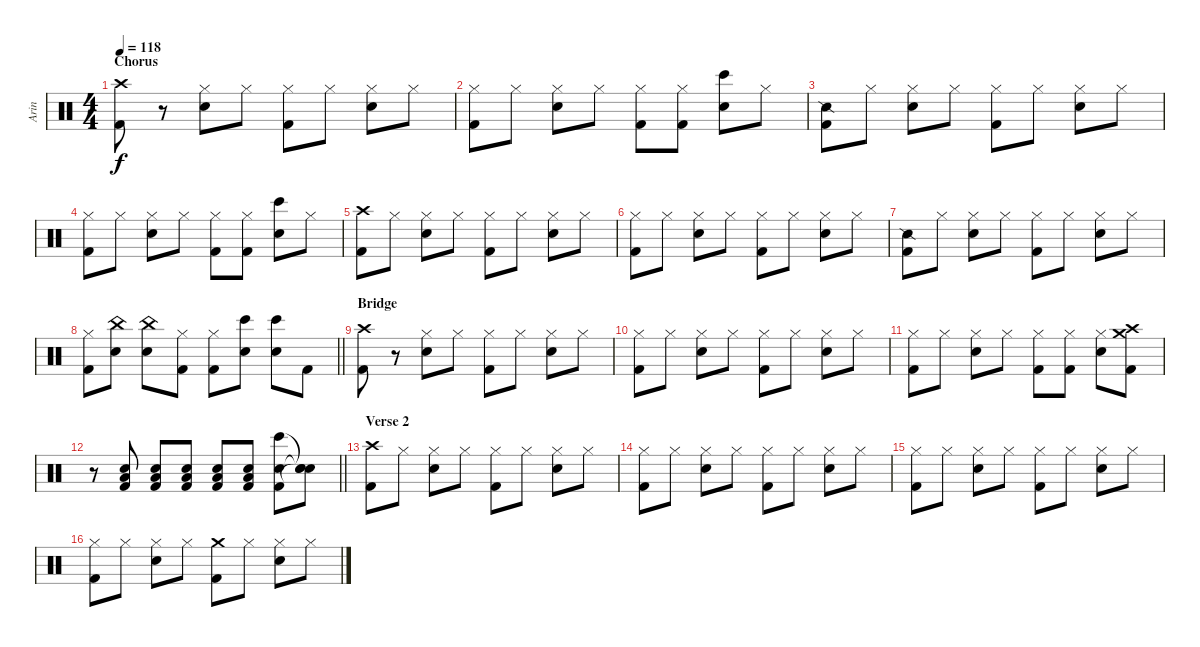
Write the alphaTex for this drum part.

\track ("Arin" "Arin") {instrument percussion}
\staff {score}
\articulation defaults
\ts (4 4)
\section ("" "Chorus")
\tempo 118
\clef neutral
\ks c
("Crash high (hit)" "Kick (hit) 2").8{dy f} r.8 ("Hi-Hat (closed)" "Electric Snare (hit)").8 "Hi-Hat (closed)".8 ("Hi-Hat (closed)" "Kick (hit) 2").8 "Hi-Hat (closed)".8 ("Hi-Hat (closed)" "Electric Snare (hit)").8 "Hi-Hat (closed)".8 |
("Hi-Hat (closed)" "Kick (hit) 2").8 "Hi-Hat (closed)".8 ("Hi-Hat (closed)" "Electric Snare (hit)").8 "Hi-Hat (closed)".8 ("Hi-Hat (closed)" "Kick (hit) 2").8 ("Hi-Hat (closed)" "Kick (hit) 2").8 ("Bongo High (hit)" "Electric Snare (hit)").8 "Hi-Hat (closed)".8 |
("Snare (side stick) 2" "Kick (hit) 2").8 "Hi-Hat (closed)".8 ("Hi-Hat (closed)" "Electric Snare (hit)").8 "Hi-Hat (closed)".8 ("Hi-Hat (closed)" "Kick (hit) 2").8 "Hi-Hat (closed)".8 ("Hi-Hat (closed)" "Electric Snare (hit)").8 "Hi-Hat (closed)".8 |
("Hi-Hat (closed)" "Kick (hit) 2").8 "Hi-Hat (closed)".8 ("Hi-Hat (closed)" "Electric Snare (hit)").8 "Hi-Hat (closed)".8 ("Hi-Hat (closed)" "Kick (hit) 2").8 ("Hi-Hat (closed)" "Kick (hit) 2").8 ("Bongo High (hit)" "Electric Snare (hit)").8 "Hi-Hat (closed)".8 |
("Crash high (hit)" "Kick (hit) 2").8 "Hi-Hat (closed)".8 ("Hi-Hat (closed)" "Electric Snare (hit)").8 "Hi-Hat (closed)".8 ("Hi-Hat (closed)" "Kick (hit) 2").8 "Hi-Hat (closed)".8 ("Hi-Hat (closed)" "Electric Snare (hit)").8 "Hi-Hat (closed)".8 |
("Hi-Hat (closed)" "Kick (hit) 2").8 "Hi-Hat (closed)".8 ("Hi-Hat (closed)" "Electric Snare (hit)").8 "Hi-Hat (closed)".8 ("Hi-Hat (closed)" "Kick (hit) 2").8 "Hi-Hat (closed)".8 ("Hi-Hat (closed)" "Electric Snare (hit)").8 "Hi-Hat (closed)".8 |
("Snare (side stick) 2" "Kick (hit) 2").8 "Hi-Hat (closed)".8 ("Hi-Hat (closed)" "Electric Snare (hit)").8 "Hi-Hat (closed)".8 ("Hi-Hat (closed)" "Kick (hit) 2").8 "Hi-Hat (closed)".8 ("Hi-Hat (closed)" "Electric Snare (hit)").8 "Hi-Hat (closed)".8 |
\barLineRight lightlight
("Hi-Hat (closed)" "Kick (hit) 2").8 ("China (hit)" "Electric Snare (hit)").8 ("China (hit)" "Electric Snare (hit)").8 ("Hi-Hat (closed)" "Kick (hit) 2").8 ("Hi-Hat (closed)" "Kick (hit) 2").8 ("Bongo High (hit)" "Electric Snare (hit)").8 ("Bongo High (hit)" "Electric Snare (hit)").8 "Kick (hit) 2".8 |
\section ("" "Bridge")
("Crash high (hit)" "Kick (hit) 2").8 r.8 ("Hi-Hat (closed)" "Electric Snare (hit)").8 "Hi-Hat (closed)".8 ("Hi-Hat (closed)" "Kick (hit) 2").8 "Hi-Hat (closed)".8 ("Hi-Hat (closed)" "Electric Snare (hit)").8 "Hi-Hat (closed)".8 |
("Hi-Hat (closed)" "Kick (hit) 2").8 "Hi-Hat (closed)".8 ("Hi-Hat (closed)" "Electric Snare (hit)").8 "Hi-Hat (closed)".8 ("Hi-Hat (closed)" "Kick (hit) 2").8 "Hi-Hat (closed)".8 ("Hi-Hat (closed)" "Electric Snare (hit)").8 "Hi-Hat (closed)".8 |
("Hi-Hat (closed)" "Kick (hit) 2").8 "Hi-Hat (closed)".8 ("Hi-Hat (closed)" "Electric Snare (hit)").8 "Hi-Hat (closed)".8 ("Hi-Hat (closed)" "Kick (hit) 2").8 ("Hi-Hat (closed)" "Kick (hit) 2").8 ("Hi-Hat (closed)" "Electric Snare (hit)").8 ("Crash medium (hit)" "Crash high (hit)" "Kick (hit) 2").8 |
\barLineRight lightlight
r.8 ("Low Tom (hit)" "Electric Snare (hit)" "Kick (hit) 2").8 ("Low Tom (hit)" "Electric Snare (hit)" "Kick (hit) 2").8 ("Low Tom (hit)" "Electric Snare (hit)" "Kick (hit) 2").8 ("Low Tom (hit)" "Electric Snare (hit)" "Kick (hit) 2").8 ("Low Tom (hit)" "Electric Snare (hit)" "Kick (hit) 2").8 ("Bongo High (hit)" "Electric Snare (hit)" "Kick (hit) 2").8 ("Snare (hit)"{t} "Snare (hit)"{t} "Snare (hit)"{t}).8 |
\section ("" "Verse 2")
("Crash high (hit)" "Kick (hit) 2").8 "Hi-Hat (closed)".8 ("Hi-Hat (closed)" "Electric Snare (hit)").8 "Hi-Hat (closed)".8 ("Hi-Hat (closed)" "Kick (hit) 2").8 "Hi-Hat (closed)".8 ("Hi-Hat (closed)" "Electric Snare (hit)").8 "Hi-Hat (closed)".8 |
("Hi-Hat (closed)" "Kick (hit) 2").8 "Hi-Hat (closed)".8 ("Hi-Hat (closed)" "Electric Snare (hit)").8 "Hi-Hat (closed)".8 ("Hi-Hat (closed)" "Kick (hit) 2").8 "Hi-Hat (closed)".8 ("Hi-Hat (closed)" "Electric Snare (hit)").8 "Hi-Hat (closed)".8 |
("Hi-Hat (closed)" "Kick (hit) 2").8 "Hi-Hat (closed)".8 ("Hi-Hat (closed)" "Electric Snare (hit)").8 "Hi-Hat (closed)".8 ("Hi-Hat (closed)" "Kick (hit) 2").8 "Hi-Hat (closed)".8 ("Hi-Hat (closed)" "Electric Snare (hit)").8 "Hi-Hat (closed)".8 |
("Hi-Hat (closed)" "Kick (hit) 2").8 "Hi-Hat (closed)".8 ("Hi-Hat (closed)" "Electric Snare (hit)").8 "Hi-Hat (closed)".8 ("Crash medium (hit)" "Kick (hit) 2").8 "Hi-Hat (closed)".8 ("Hi-Hat (closed)" "Electric Snare (hit)").8 "Hi-Hat (closed)".8
